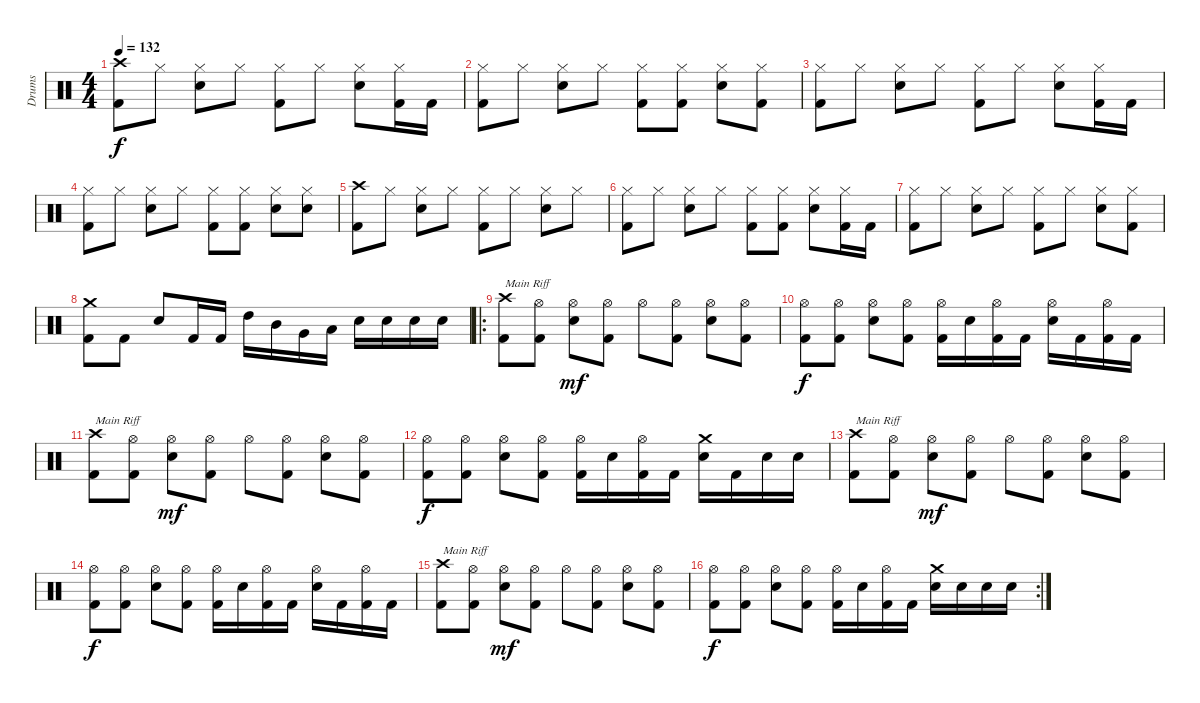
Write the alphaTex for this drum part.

\track ("Drums" "Drums") {instrument percussion}
\staff {score}
\articulation defaults
\ts (4 4)
\tempo 132
\clef neutral
\ks c
("Crash high (hit)" "Kick (hit) 2").8{dy f} "Hi-Hat (closed)".8 ("Hi-Hat (closed)" "Snare (hit) 2").8 "Hi-Hat (closed)".8 ("Hi-Hat (closed)" "Kick (hit) 2").8 "Hi-Hat (closed)".8 ("Hi-Hat (closed)" "Snare (hit) 2").8 ("Hi-Hat (closed)" "Kick (hit) 2").16 "Kick (hit) 2".16 |
("Hi-Hat (closed)" "Kick (hit) 2").8 "Hi-Hat (closed)".8 ("Hi-Hat (closed)" "Snare (hit) 2").8 "Hi-Hat (closed)".8 ("Hi-Hat (closed)" "Kick (hit) 2").8 ("Hi-Hat (closed)" "Kick (hit) 2").8 ("Hi-Hat (closed)" "Snare (hit) 2").8 ("Hi-Hat (closed)" "Kick (hit) 2").8 |
("Hi-Hat (closed)" "Kick (hit) 2").8 "Hi-Hat (closed)".8 ("Hi-Hat (closed)" "Snare (hit) 2").8 "Hi-Hat (closed)".8 ("Hi-Hat (closed)" "Kick (hit) 2").8 "Hi-Hat (closed)".8 ("Hi-Hat (closed)" "Snare (hit) 2").8 ("Hi-Hat (closed)" "Kick (hit) 2").16 "Kick (hit) 2".16 |
("Hi-Hat (closed)" "Kick (hit) 2").8 "Hi-Hat (closed)".8 ("Hi-Hat (closed)" "Snare (hit) 2").8 "Hi-Hat (closed)".8 ("Hi-Hat (closed)" "Kick (hit) 2").8 ("Hi-Hat (closed)" "Kick (hit) 2").8 ("Hi-Hat (closed)" "Snare (hit) 2").8 ("Hi-Hat (closed)" "Snare (hit) 2").8 |
("Crash high (hit)" "Kick (hit) 2").8 "Hi-Hat (closed)".8 ("Hi-Hat (closed)" "Snare (hit) 2").8 "Hi-Hat (closed)".8 ("Hi-Hat (closed)" "Kick (hit) 2").8 "Hi-Hat (closed)".8 ("Hi-Hat (closed)" "Snare (hit) 2").8 "Hi-Hat (closed)".8 |
("Hi-Hat (closed)" "Kick (hit) 2").8 "Hi-Hat (closed)".8 ("Hi-Hat (closed)" "Snare (hit) 2").8 "Hi-Hat (closed)".8 ("Hi-Hat (closed)" "Kick (hit) 2").8 ("Hi-Hat (closed)" "Kick (hit) 2").8 ("Hi-Hat (closed)" "Snare (hit) 2").8 ("Hi-Hat (closed)" "Kick (hit) 2").16 "Kick (hit) 2".16 |
("Hi-Hat (closed)" "Kick (hit) 2").8 "Hi-Hat (closed)".8 ("Hi-Hat (closed)" "Snare (hit) 2").8 "Hi-Hat (closed)".8 ("Hi-Hat (closed)" "Kick (hit) 2").8 "Hi-Hat (closed)".8 ("Hi-Hat (closed)" "Snare (hit) 2").8 ("Hi-Hat (closed)" "Kick (hit) 2").8 |
("Crash medium (hit)" "Kick (hit) 2").8 "Kick (hit) 2".8 "Snare (hit) 2".8 "Kick (hit) 2".16 "Kick (hit) 2".16 "High Tom (hit)".16 "Mid Tom (hit)".16 "Very Low Tom (hit)".16 "Low Tom (hit)".16 "Snare (hit) 2".16 "Snare (hit) 2".16 "Snare (hit) 2".16 "Snare (hit) 2".16 |
\ro
("Crash high (hit)" "Kick (hit) 2").8{txt "Main Riff"} ("Hi-Hat (open)" "Kick (hit) 2").8 ("Hi-Hat (open)" "Snare (hit) 2").8{dy mf} ("Hi-Hat (open)" "Kick (hit) 2").8 "Hi-Hat (open)".8 ("Hi-Hat (open)" "Kick (hit) 2").8 ("Hi-Hat (open)" "Snare (hit) 2").8 ("Hi-Hat (open)" "Kick (hit) 2").8 |
("Hi-Hat (open)" "Kick (hit) 2").8{dy f} ("Hi-Hat (open)" "Kick (hit) 2").8 ("Hi-Hat (open)" "Snare (hit) 2").8 ("Hi-Hat (open)" "Kick (hit) 2").8 ("Hi-Hat (open)" "Kick (hit) 2").16 "Snare (hit) 2".16 ("Hi-Hat (open)" "Kick (hit) 2").16 "Kick (hit) 2".16 ("Hi-Hat (open)" "Snare (hit) 2").16 "Kick (hit) 2".16 ("Hi-Hat (open)" "Kick (hit) 2").16 "Kick (hit) 2".16 |
("Crash high (hit)" "Kick (hit) 2").8{txt "Main Riff"} ("Hi-Hat (open)" "Kick (hit) 2").8 ("Hi-Hat (open)" "Snare (hit) 2").8{dy mf} ("Hi-Hat (open)" "Kick (hit) 2").8 "Hi-Hat (open)".8 ("Hi-Hat (open)" "Kick (hit) 2").8 ("Hi-Hat (open)" "Snare (hit) 2").8 ("Hi-Hat (open)" "Kick (hit) 2").8 |
("Hi-Hat (open)" "Kick (hit) 2").8{dy f} ("Hi-Hat (open)" "Kick (hit) 2").8 ("Hi-Hat (open)" "Snare (hit) 2").8 ("Hi-Hat (open)" "Kick (hit) 2").8 ("Hi-Hat (open)" "Kick (hit) 2").16 "Snare (hit) 2".16 ("Hi-Hat (open)" "Kick (hit) 2").16 "Kick (hit) 2".16 ("Crash medium (hit)" "Snare (hit) 2").16 "Kick (hit) 2".16 "Snare (hit) 2".16 "Snare (hit) 2".16 |
("Crash high (hit)" "Kick (hit) 2").8{txt "Main Riff"} ("Hi-Hat (open)" "Kick (hit) 2").8 ("Hi-Hat (open)" "Snare (hit) 2").8{dy mf} ("Hi-Hat (open)" "Kick (hit) 2").8 "Hi-Hat (open)".8 ("Hi-Hat (open)" "Kick (hit) 2").8 ("Hi-Hat (open)" "Snare (hit) 2").8 ("Hi-Hat (open)" "Kick (hit) 2").8 |
("Hi-Hat (open)" "Kick (hit) 2").8{dy f} ("Hi-Hat (open)" "Kick (hit) 2").8 ("Hi-Hat (open)" "Snare (hit) 2").8 ("Hi-Hat (open)" "Kick (hit) 2").8 ("Hi-Hat (open)" "Kick (hit) 2").16 "Snare (hit) 2".16 ("Hi-Hat (open)" "Kick (hit) 2").16 "Kick (hit) 2".16 ("Hi-Hat (open)" "Snare (hit) 2").16 "Kick (hit) 2".16 ("Hi-Hat (open)" "Kick (hit) 2").16 "Kick (hit) 2".16 |
("Crash high (hit)" "Kick (hit) 2").8{txt "Main Riff"} ("Hi-Hat (open)" "Kick (hit) 2").8 ("Hi-Hat (open)" "Snare (hit) 2").8{dy mf} ("Hi-Hat (open)" "Kick (hit) 2").8 "Hi-Hat (open)".8 ("Hi-Hat (open)" "Kick (hit) 2").8 ("Hi-Hat (open)" "Snare (hit) 2").8 ("Hi-Hat (open)" "Kick (hit) 2").8 |
\rc 2
("Hi-Hat (open)" "Kick (hit) 2").8{dy f} ("Hi-Hat (open)" "Kick (hit) 2").8 ("Hi-Hat (open)" "Snare (hit) 2").8 ("Hi-Hat (open)" "Kick (hit) 2").8 ("Hi-Hat (open)" "Kick (hit) 2").16 "Snare (hit) 2".16 ("Hi-Hat (open)" "Kick (hit) 2").16 "Kick (hit) 2".16 ("Crash medium (hit)" "Snare (hit) 2").16 "Snare (hit) 2".16 "Snare (hit) 2".16 "Snare (hit) 2".16
